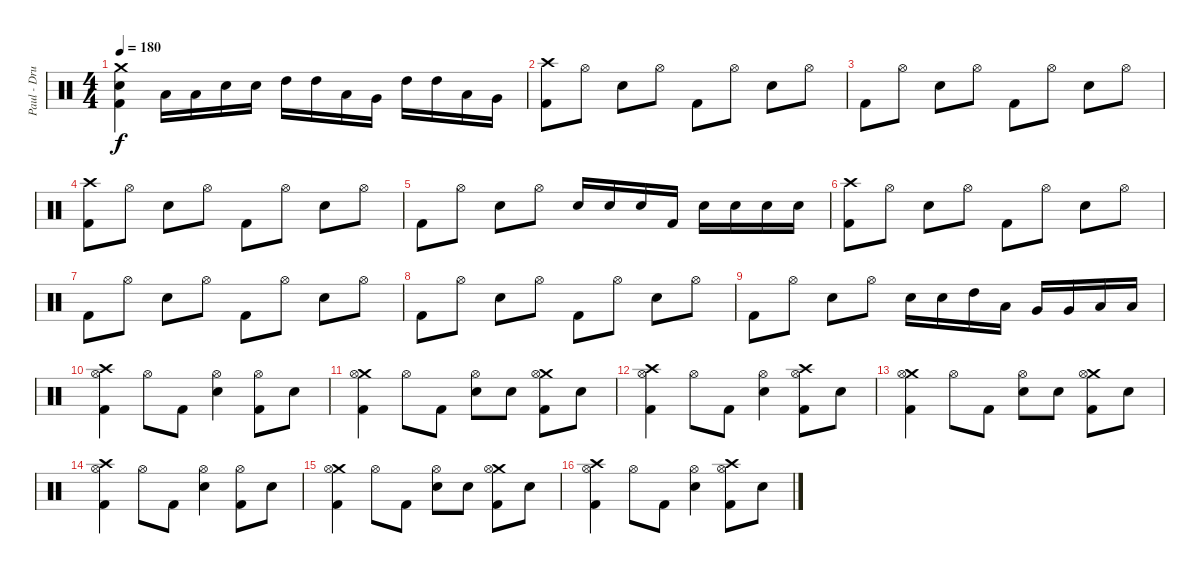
\track ("Paul - Drums" "Paul - Dru") {instrument percussion}
\staff {score}
\articulation defaults
\ts (4 4)
\tempo 180
\clef neutral
\ks c
("Crash medium (hit)" "Electric Snare (hit)" "Kick (hit) 2").4{dy f} "Low Tom (hit)".16 "Low Tom (hit)".16 "Electric Snare (hit)".16 "Electric Snare (hit)".16 "High Tom (hit)".16 "High Tom (hit)".16 "Low Tom (hit)".16 "Very Low Tom (hit)".16 "High Tom (hit)".16 "High Tom (hit)".16 "Low Tom (hit)".16 "Very Low Tom (hit)".16 |
("Crash high (hit)" "Kick (hit) 2").8 "Hi-Hat (open)".8 "Electric Snare (hit)".8 "Hi-Hat (open)".8 "Kick (hit) 2".8 "Hi-Hat (open)".8 "Electric Snare (hit)".8 "Hi-Hat (open)".8 |
"Kick (hit) 2".8 "Hi-Hat (open)".8 "Electric Snare (hit)".8 "Hi-Hat (open)".8 "Kick (hit) 2".8 "Hi-Hat (open)".8 "Electric Snare (hit)".8 "Hi-Hat (open)".8 |
("Crash high (hit)" "Kick (hit) 2").8 "Hi-Hat (open)".8 "Electric Snare (hit)".8 "Hi-Hat (open)".8 "Kick (hit) 2".8 "Hi-Hat (open)".8 "Electric Snare (hit)".8 "Hi-Hat (open)".8 |
"Kick (hit) 2".8 "Hi-Hat (open)".8 "Electric Snare (hit)".8 "Hi-Hat (open)".8 "Electric Snare (hit)".16 "Electric Snare (hit)".16 "Electric Snare (hit)".16 "Kick (hit) 2".16 "Electric Snare (hit)".16 "Electric Snare (hit)".16 "Electric Snare (hit)".16 "Electric Snare (hit)".16 |
("Crash high (hit)" "Kick (hit) 2").8 "Hi-Hat (open)".8 "Electric Snare (hit)".8 "Hi-Hat (open)".8 "Kick (hit) 2".8 "Hi-Hat (open)".8 "Electric Snare (hit)".8 "Hi-Hat (open)".8 |
"Kick (hit) 2".8 "Hi-Hat (open)".8 "Electric Snare (hit)".8 "Hi-Hat (open)".8 "Kick (hit) 2".8 "Hi-Hat (open)".8 "Electric Snare (hit)".8 "Hi-Hat (open)".8 |
"Kick (hit) 2".8 "Hi-Hat (open)".8 "Electric Snare (hit)".8 "Hi-Hat (open)".8 "Kick (hit) 2".8 "Hi-Hat (open)".8 "Electric Snare (hit)".8 "Hi-Hat (open)".8 |
"Kick (hit) 2".8 "Hi-Hat (open)".8 "Electric Snare (hit)".8 "Hi-Hat (open)".8 "Electric Snare (hit)".16 "Electric Snare (hit)".16 "High Tom (hit)".16 "Low Tom (hit)".16 "Very Low Tom (hit)".16 "Very Low Tom (hit)".16 "Low Floor Tom (hit)".16 "Low Floor Tom (hit)".16 |
("Crash high (hit)" "Hi-Hat (open)" "Kick (hit) 2").4 "Hi-Hat (open)".8 "Kick (hit) 2".8 ("Hi-Hat (open)" "Electric Snare (hit)").4 ("Hi-Hat (open)" "Kick (hit) 2").8 "Electric Snare (hit)".8 |
("Crash medium (hit)" "Hi-Hat (open)" "Kick (hit) 2").4 "Hi-Hat (open)".8 "Kick (hit) 2".8 ("Hi-Hat (open)" "Electric Snare (hit)").8 "Electric Snare (hit)".8 ("Crash medium (hit)" "Hi-Hat (open)" "Kick (hit) 2").8 "Electric Snare (hit)".8 |
("Crash high (hit)" "Hi-Hat (open)" "Kick (hit) 2").4 "Hi-Hat (open)".8 "Kick (hit) 2".8 ("Hi-Hat (open)" "Electric Snare (hit)").4 ("Crash high (hit)" "Hi-Hat (open)" "Kick (hit) 2").8 "Electric Snare (hit)".8 |
("Crash medium (hit)" "Hi-Hat (open)" "Kick (hit) 2").4 "Hi-Hat (open)".8 "Kick (hit) 2".8 ("Hi-Hat (open)" "Electric Snare (hit)").8 "Electric Snare (hit)".8 ("Crash medium (hit)" "Hi-Hat (open)" "Kick (hit) 2").8 "Electric Snare (hit)".8 |
("Crash high (hit)" "Hi-Hat (open)" "Kick (hit) 2").4 "Hi-Hat (open)".8 "Kick (hit) 2".8 ("Hi-Hat (open)" "Electric Snare (hit)").4 ("Hi-Hat (open)" "Kick (hit) 2").8 "Electric Snare (hit)".8 |
("Crash medium (hit)" "Hi-Hat (open)" "Kick (hit) 2").4 "Hi-Hat (open)".8 "Kick (hit) 2".8 ("Hi-Hat (open)" "Electric Snare (hit)").8 "Electric Snare (hit)".8 ("Crash medium (hit)" "Hi-Hat (open)" "Kick (hit) 2").8 "Electric Snare (hit)".8 |
("Crash high (hit)" "Hi-Hat (open)" "Kick (hit) 2").4 "Hi-Hat (open)".8 "Kick (hit) 2".8 ("Hi-Hat (open)" "Electric Snare (hit)").4 ("Crash high (hit)" "Hi-Hat (open)" "Kick (hit) 2").8 "Electric Snare (hit)".8
